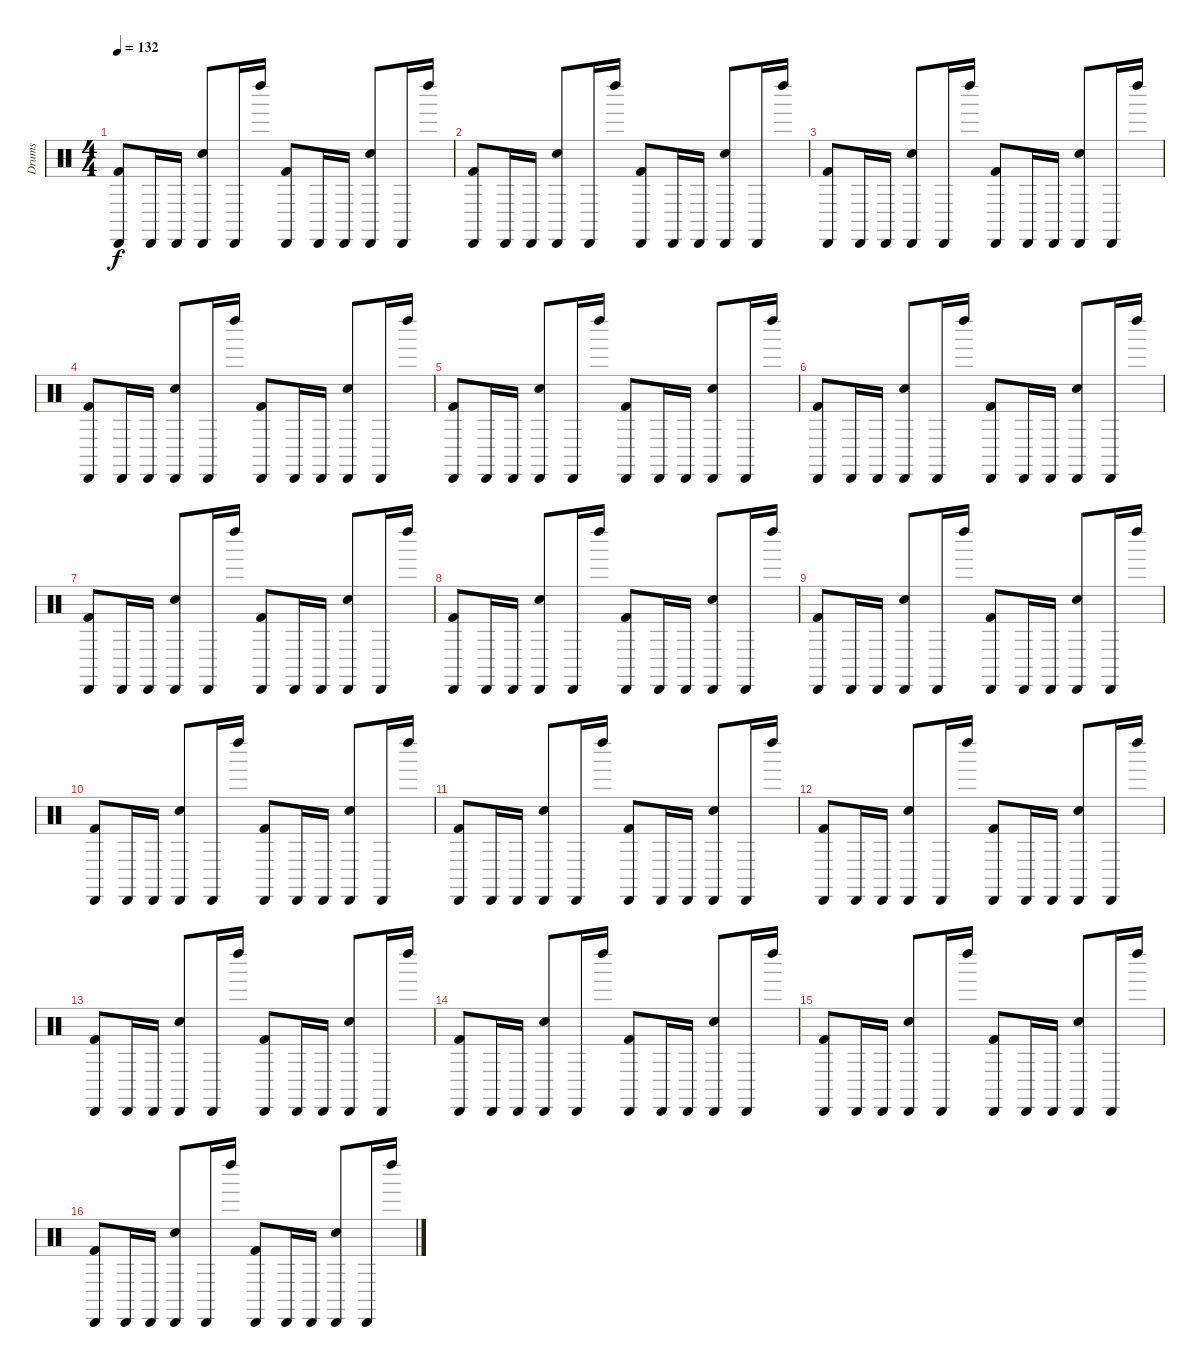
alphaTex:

\track ("Drums" "Drums") {instrument percussion}
\staff {score}
\articulation defaults
\ts (4 4)
\tempo 132
\clef neutral
\ks c
("Kick (hit) 2" "Cabasa (hit)").8{dy f} "Cabasa (hit)".16 "Cabasa (hit)".16 ("Snare (hit) 2" "Cabasa (hit)").8 "Cabasa (hit)".16 "Left Maraca (hit)".16 ("Kick (hit) 2" "Cabasa (hit)").8 "Cabasa (hit)".16 "Cabasa (hit)".16 ("Snare (hit) 2" "Cabasa (hit)").8 "Cabasa (hit)".16 "Left Maraca (hit)".16 |
("Kick (hit) 2" "Cabasa (hit)").8 "Cabasa (hit)".16 "Cabasa (hit)".16 ("Snare (hit) 2" "Cabasa (hit)").8 "Cabasa (hit)".16 "Left Maraca (hit)".16 ("Kick (hit) 2" "Cabasa (hit)").8 "Cabasa (hit)".16 "Cabasa (hit)".16 ("Snare (hit) 2" "Cabasa (hit)").8 "Cabasa (hit)".16 "Left Maraca (hit)".16 |
("Kick (hit) 2" "Cabasa (hit)").8 "Cabasa (hit)".16 "Cabasa (hit)".16 ("Snare (hit) 2" "Cabasa (hit)").8 "Cabasa (hit)".16 "Left Maraca (hit)".16 ("Kick (hit) 2" "Cabasa (hit)").8 "Cabasa (hit)".16 "Cabasa (hit)".16 ("Snare (hit) 2" "Cabasa (hit)").8 "Cabasa (hit)".16 "Left Maraca (hit)".16 |
("Kick (hit) 2" "Cabasa (hit)").8 "Cabasa (hit)".16 "Cabasa (hit)".16 ("Snare (hit) 2" "Cabasa (hit)").8 "Cabasa (hit)".16 "Left Maraca (hit)".16 ("Kick (hit) 2" "Cabasa (hit)").8 "Cabasa (hit)".16 "Cabasa (hit)".16 ("Snare (hit) 2" "Cabasa (hit)").8 "Cabasa (hit)".16 "Left Maraca (hit)".16 |
("Kick (hit) 2" "Cabasa (hit)").8 "Cabasa (hit)".16 "Cabasa (hit)".16 ("Snare (hit) 2" "Cabasa (hit)").8 "Cabasa (hit)".16 "Left Maraca (hit)".16 ("Kick (hit) 2" "Cabasa (hit)").8 "Cabasa (hit)".16 "Cabasa (hit)".16 ("Snare (hit) 2" "Cabasa (hit)").8 "Cabasa (hit)".16 "Left Maraca (hit)".16 |
("Kick (hit) 2" "Cabasa (hit)").8 "Cabasa (hit)".16 "Cabasa (hit)".16 ("Snare (hit) 2" "Cabasa (hit)").8 "Cabasa (hit)".16 "Left Maraca (hit)".16 ("Kick (hit) 2" "Cabasa (hit)").8 "Cabasa (hit)".16 "Cabasa (hit)".16 ("Snare (hit) 2" "Cabasa (hit)").8 "Cabasa (hit)".16 "Left Maraca (hit)".16 |
("Kick (hit) 2" "Cabasa (hit)").8 "Cabasa (hit)".16 "Cabasa (hit)".16 ("Snare (hit) 2" "Cabasa (hit)").8 "Cabasa (hit)".16 "Left Maraca (hit)".16 ("Kick (hit) 2" "Cabasa (hit)").8 "Cabasa (hit)".16 "Cabasa (hit)".16 ("Snare (hit) 2" "Cabasa (hit)").8 "Cabasa (hit)".16 "Left Maraca (hit)".16 |
("Kick (hit) 2" "Cabasa (hit)").8 "Cabasa (hit)".16 "Cabasa (hit)".16 ("Snare (hit) 2" "Cabasa (hit)").8 "Cabasa (hit)".16 "Left Maraca (hit)".16 ("Kick (hit) 2" "Cabasa (hit)").8 "Cabasa (hit)".16 "Cabasa (hit)".16 ("Snare (hit) 2" "Cabasa (hit)").8 "Cabasa (hit)".16 "Left Maraca (hit)".16 |
("Kick (hit) 2" "Cabasa (hit)").8 "Cabasa (hit)".16 "Cabasa (hit)".16 ("Snare (hit) 2" "Cabasa (hit)").8 "Cabasa (hit)".16 "Left Maraca (hit)".16 ("Kick (hit) 2" "Cabasa (hit)").8 "Cabasa (hit)".16 "Cabasa (hit)".16 ("Snare (hit) 2" "Cabasa (hit)").8 "Cabasa (hit)".16 "Left Maraca (hit)".16 |
("Kick (hit) 2" "Cabasa (hit)").8 "Cabasa (hit)".16 "Cabasa (hit)".16 ("Snare (hit) 2" "Cabasa (hit)").8 "Cabasa (hit)".16 "Left Maraca (hit)".16 ("Kick (hit) 2" "Cabasa (hit)").8 "Cabasa (hit)".16 "Cabasa (hit)".16 ("Snare (hit) 2" "Cabasa (hit)").8 "Cabasa (hit)".16 "Left Maraca (hit)".16 |
("Kick (hit) 2" "Cabasa (hit)").8 "Cabasa (hit)".16 "Cabasa (hit)".16 ("Snare (hit) 2" "Cabasa (hit)").8 "Cabasa (hit)".16 "Left Maraca (hit)".16 ("Kick (hit) 2" "Cabasa (hit)").8 "Cabasa (hit)".16 "Cabasa (hit)".16 ("Snare (hit) 2" "Cabasa (hit)").8 "Cabasa (hit)".16 "Left Maraca (hit)".16 |
("Kick (hit) 2" "Cabasa (hit)").8 "Cabasa (hit)".16 "Cabasa (hit)".16 ("Snare (hit) 2" "Cabasa (hit)").8 "Cabasa (hit)".16 "Left Maraca (hit)".16 ("Kick (hit) 2" "Cabasa (hit)").8 "Cabasa (hit)".16 "Cabasa (hit)".16 ("Snare (hit) 2" "Cabasa (hit)").8 "Cabasa (hit)".16 "Left Maraca (hit)".16 |
("Kick (hit) 2" "Cabasa (hit)").8 "Cabasa (hit)".16 "Cabasa (hit)".16 ("Snare (hit) 2" "Cabasa (hit)").8 "Cabasa (hit)".16 "Left Maraca (hit)".16 ("Kick (hit) 2" "Cabasa (hit)").8 "Cabasa (hit)".16 "Cabasa (hit)".16 ("Snare (hit) 2" "Cabasa (hit)").8 "Cabasa (hit)".16 "Left Maraca (hit)".16 |
("Kick (hit) 2" "Cabasa (hit)").8 "Cabasa (hit)".16 "Cabasa (hit)".16 ("Snare (hit) 2" "Cabasa (hit)").8 "Cabasa (hit)".16 "Left Maraca (hit)".16 ("Kick (hit) 2" "Cabasa (hit)").8 "Cabasa (hit)".16 "Cabasa (hit)".16 ("Snare (hit) 2" "Cabasa (hit)").8 "Cabasa (hit)".16 "Left Maraca (hit)".16 |
("Kick (hit) 2" "Cabasa (hit)").8 "Cabasa (hit)".16 "Cabasa (hit)".16 ("Snare (hit) 2" "Cabasa (hit)").8 "Cabasa (hit)".16 "Left Maraca (hit)".16 ("Kick (hit) 2" "Cabasa (hit)").8 "Cabasa (hit)".16 "Cabasa (hit)".16 ("Snare (hit) 2" "Cabasa (hit)").8 "Cabasa (hit)".16 "Left Maraca (hit)".16 |
("Kick (hit) 2" "Cabasa (hit)").8 "Cabasa (hit)".16 "Cabasa (hit)".16 ("Snare (hit) 2" "Cabasa (hit)").8 "Cabasa (hit)".16 "Left Maraca (hit)".16 ("Kick (hit) 2" "Cabasa (hit)").8 "Cabasa (hit)".16 "Cabasa (hit)".16 ("Snare (hit) 2" "Cabasa (hit)").8 "Cabasa (hit)".16 "Left Maraca (hit)".16
